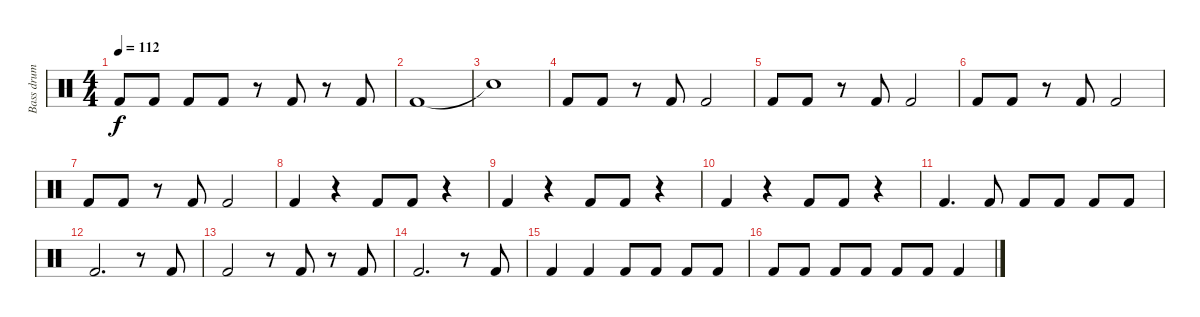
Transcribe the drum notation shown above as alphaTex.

\track ("Bass drum" "Bass drum") {instrument percussion}
\staff {score}
\articulation defaults
\ts (4 4)
\tempo 112
\clef neutral
\ks c "Kick (hit) 2".8{dy f} "Kick (hit) 2".8 "Kick (hit) 2".8 "Kick (hit) 2".8
r.8 "Kick (hit) 2".8 r.8 "Kick (hit) 2".8 |
"Kick (hit) 2".1 |
"Snare (hit)"{t}.1 |
"Kick (hit) 2".8 "Kick (hit) 2".8 r.8 "Kick (hit) 2".8 "Kick (hit) 2".2 |
"Kick (hit) 2".8 "Kick (hit) 2".8 r.8 "Kick (hit) 2".8 "Kick (hit) 2".2 |
"Kick (hit) 2".8 "Kick (hit) 2".8 r.8 "Kick (hit) 2".8 "Kick (hit) 2".2 |
"Kick (hit) 2".8 "Kick (hit) 2".8 r.8 "Kick (hit) 2".8 "Kick (hit) 2".2 |
"Kick (hit) 2".4 r.4 "Kick (hit) 2".8 "Kick (hit) 2".8 r.4 |
"Kick (hit) 2".4 r.4 "Kick (hit) 2".8 "Kick (hit) 2".8 r.4 |
"Kick (hit) 2".4 r.4 "Kick (hit) 2".8 "Kick (hit) 2".8 r.4 |
"Kick (hit) 2".4{d} "Kick (hit) 2".8 "Kick (hit) 2".8 "Kick (hit) 2".8 "Kick (hit) 2".8 "Kick (hit) 2".8 |
"Kick (hit) 2".2{d} r.8 "Kick (hit) 2".8 |
"Kick (hit) 2".2 r.8 "Kick (hit) 2".8 r.8 "Kick (hit) 2".8 |
"Kick (hit) 2".2{d} r.8 "Kick (hit) 2".8 |
"Kick (hit) 2".4 "Kick (hit) 2".4 "Kick (hit) 2".8 "Kick (hit) 2".8 "Kick (hit) 2".8 "Kick (hit) 2".8 |
"Kick (hit) 2".8 "Kick (hit) 2".8 "Kick (hit) 2".8 "Kick (hit) 2".8 "Kick (hit) 2".8 "Kick (hit) 2".8 "Kick (hit) 2".4
